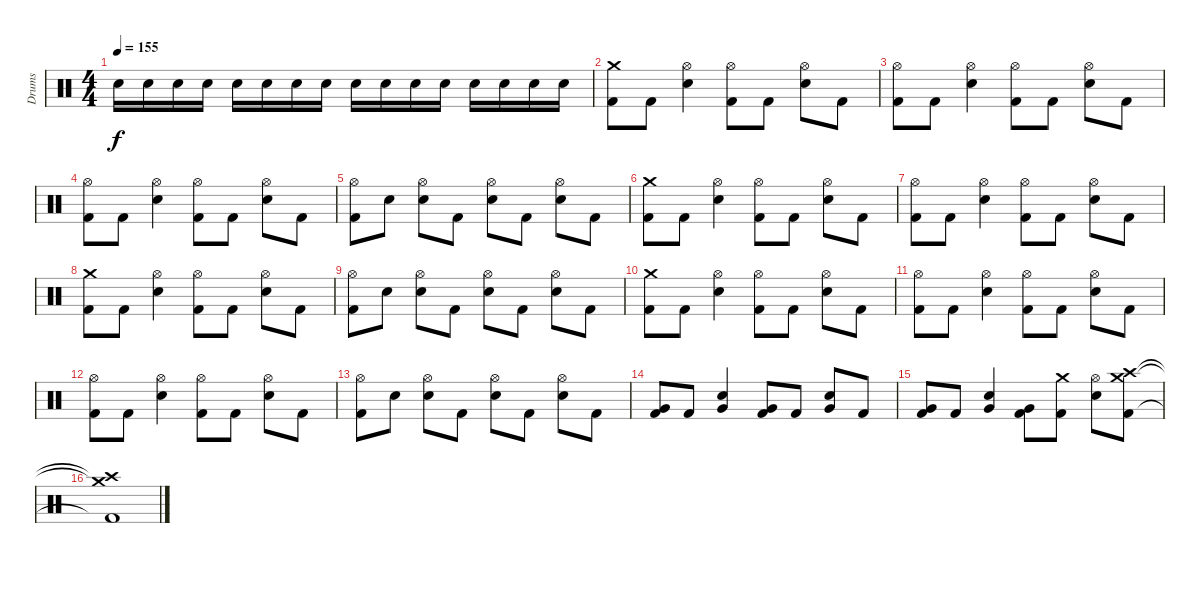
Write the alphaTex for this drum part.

\track ("Drums" "Drums") {instrument percussion}
\staff {score}
\articulation defaults
\ts (4 4)
\tempo 155
\clef neutral
\ks c "Electric Snare (hit)".16{dy f} "Electric Snare (hit)".16 "Electric Snare (hit)".16 "Electric Snare (hit)".16 "Electric Snare (hit)".16 "Electric Snare (hit)".16 "Electric Snare (hit)".16 "Electric Snare (hit)".16 "Electric Snare (hit)".16 "Electric Snare (hit)".16 "Electric Snare (hit)".16 "Electric Snare (hit)".16 "Electric Snare (hit)".16 "Electric Snare (hit)".16 "Electric Snare (hit)".16 "Electric Snare (hit)".16
|
("Crash medium (hit)" "Kick (hit) 2").8 "Kick (hit) 2".8 ("Hi-Hat (open)" "Electric Snare (hit)").4 ("Hi-Hat (open)" "Kick (hit) 2").8 "Kick (hit) 2".8 ("Hi-Hat (open)" "Electric Snare (hit)").8 "Kick (hit) 2".8 |
("Hi-Hat (open)" "Kick (hit) 2").8 "Kick (hit) 2".8 ("Hi-Hat (open)" "Electric Snare (hit)").4 ("Hi-Hat (open)" "Kick (hit) 2").8 "Kick (hit) 2".8 ("Hi-Hat (open)" "Electric Snare (hit)").8 "Kick (hit) 2".8 |
("Hi-Hat (open)" "Kick (hit) 2").8 "Kick (hit) 2".8 ("Hi-Hat (open)" "Electric Snare (hit)").4 ("Hi-Hat (open)" "Kick (hit) 2").8 "Kick (hit) 2".8 ("Hi-Hat (open)" "Electric Snare (hit)").8 "Kick (hit) 2".8 |
("Hi-Hat (open)" "Kick (hit) 2").8 "Electric Snare (hit)".8 ("Hi-Hat (open)" "Electric Snare (hit)").8 "Kick (hit) 2".8 ("Hi-Hat (open)" "Electric Snare (hit)").8 "Kick (hit) 2".8 ("Hi-Hat (open)" "Electric Snare (hit)").8 "Kick (hit) 2".8 |
("Crash medium (hit)" "Kick (hit) 2").8 "Kick (hit) 2".8 ("Hi-Hat (open)" "Electric Snare (hit)").4 ("Hi-Hat (open)" "Kick (hit) 2").8 "Kick (hit) 2".8 ("Hi-Hat (open)" "Electric Snare (hit)").8 "Kick (hit) 2".8 |
("Hi-Hat (open)" "Kick (hit) 2").8 "Kick (hit) 2".8 ("Hi-Hat (open)" "Electric Snare (hit)").4 ("Hi-Hat (open)" "Kick (hit) 2").8 "Kick (hit) 2".8 ("Hi-Hat (open)" "Electric Snare (hit)").8 "Kick (hit) 2".8 |
("Crash medium (hit)" "Kick (hit) 2").8 "Kick (hit) 2".8 ("Hi-Hat (open)" "Electric Snare (hit)").4 ("Hi-Hat (open)" "Kick (hit) 2").8 "Kick (hit) 2".8 ("Hi-Hat (open)" "Electric Snare (hit)").8 "Kick (hit) 2".8 |
("Hi-Hat (open)" "Kick (hit) 2").8 "Electric Snare (hit)".8 ("Hi-Hat (open)" "Electric Snare (hit)").8 "Kick (hit) 2".8 ("Hi-Hat (open)" "Electric Snare (hit)").8 "Kick (hit) 2".8 ("Hi-Hat (open)" "Electric Snare (hit)").8 "Kick (hit) 2".8 |
("Crash medium (hit)" "Kick (hit) 2").8 "Kick (hit) 2".8 ("Hi-Hat (open)" "Electric Snare (hit)").4 ("Hi-Hat (open)" "Kick (hit) 2").8 "Kick (hit) 2".8 ("Hi-Hat (open)" "Electric Snare (hit)").8 "Kick (hit) 2".8 |
("Hi-Hat (open)" "Kick (hit) 2").8 "Kick (hit) 2".8 ("Hi-Hat (open)" "Electric Snare (hit)").4 ("Hi-Hat (open)" "Kick (hit) 2").8 "Kick (hit) 2".8 ("Hi-Hat (open)" "Electric Snare (hit)").8 "Kick (hit) 2".8 |
("Hi-Hat (open)" "Kick (hit) 2").8 "Kick (hit) 2".8 ("Hi-Hat (open)" "Electric Snare (hit)").4 ("Hi-Hat (open)" "Kick (hit) 2").8 "Kick (hit) 2".8 ("Hi-Hat (open)" "Electric Snare (hit)").8 "Kick (hit) 2".8 |
("Hi-Hat (open)" "Kick (hit) 2").8 "Electric Snare (hit)".8 ("Hi-Hat (open)" "Electric Snare (hit)").8 "Kick (hit) 2".8 ("Hi-Hat (open)" "Electric Snare (hit)").8 "Kick (hit) 2".8 ("Hi-Hat (open)" "Electric Snare (hit)").8 "Kick (hit) 2".8 |
("Very Low Tom (hit)" "Kick (hit) 2").8 "Kick (hit) 2".8 ("Very Low Tom (hit)" "Electric Snare (hit)").4 ("Very Low Tom (hit)" "Kick (hit) 2").8 "Kick (hit) 2".8 ("Very Low Tom (hit)" "Electric Snare (hit)").8 "Kick (hit) 2".8 |
("Very Low Tom (hit)" "Kick (hit) 2").8 "Kick (hit) 2".8 ("Very Low Tom (hit)" "Electric Snare (hit)").4 ("Very Low Tom (hit)" "Kick (hit) 2").8 ("Crash medium (hit)" "Kick (hit) 2").8 ("Hi-Hat (open)" "Electric Snare (hit)").8 ("Crash high (hit)" "Crash medium (hit)" "Kick (hit) 2").8 |
("Crash high (hit)"{t} "Crash medium (hit)"{t} "Kick (hit) 2"{t}).1{volume 0}
